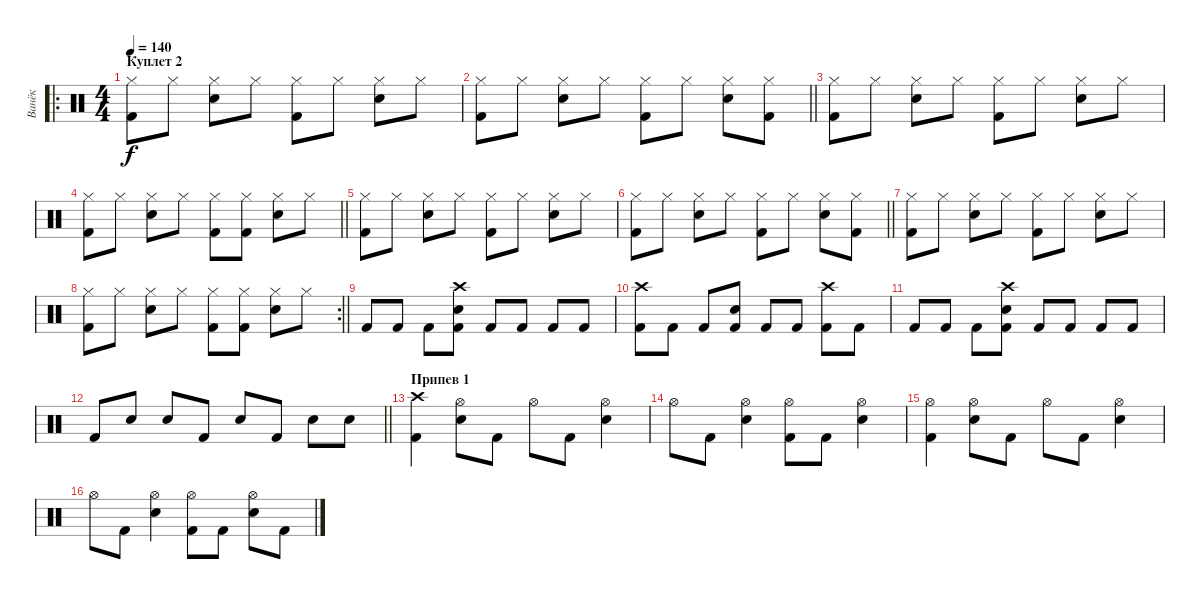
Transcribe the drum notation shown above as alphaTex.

\track ("Ванёк" "Ванёк") {instrument percussion}
\staff {score}
\articulation defaults
\ro
\ts (4 4)
\section ("" "Куплет 2")
\tempo 140
\clef neutral
\ks c
("Hi-Hat (closed)" "Kick (hit) 2").8{dy f} "Hi-Hat (closed)".8 ("Hi-Hat (closed)" "Electric Snare (hit)").8 "Hi-Hat (closed)".8 ("Hi-Hat (closed)" "Kick (hit) 2").8 "Hi-Hat (closed)".8 ("Hi-Hat (closed)" "Electric Snare (hit)").8 "Hi-Hat (closed)".8 |
\barLineRight lightlight
("Hi-Hat (closed)" "Kick (hit) 2").8 "Hi-Hat (closed)".8 ("Hi-Hat (closed)" "Electric Snare (hit)").8 "Hi-Hat (closed)".8 ("Hi-Hat (closed)" "Kick (hit) 2").8 "Hi-Hat (closed)".8 ("Hi-Hat (closed)" "Electric Snare (hit)").8 ("Hi-Hat (closed)" "Kick (hit) 2").8 |
("Hi-Hat (closed)" "Kick (hit) 2").8 "Hi-Hat (closed)".8 ("Hi-Hat (closed)" "Electric Snare (hit)").8 "Hi-Hat (closed)".8 ("Hi-Hat (closed)" "Kick (hit) 2").8 "Hi-Hat (closed)".8 ("Hi-Hat (closed)" "Electric Snare (hit)").8 "Hi-Hat (closed)".8 |
\barLineRight lightlight
("Hi-Hat (closed)" "Kick (hit) 2").8 "Hi-Hat (closed)".8 ("Hi-Hat (closed)" "Electric Snare (hit)").8 "Hi-Hat (closed)".8 ("Hi-Hat (closed)" "Kick (hit) 2").8 ("Hi-Hat (closed)" "Kick (hit) 2").8 ("Hi-Hat (closed)" "Electric Snare (hit)").8 "Hi-Hat (closed)".8 |
("Hi-Hat (closed)" "Kick (hit) 2").8 "Hi-Hat (closed)".8 ("Hi-Hat (closed)" "Electric Snare (hit)").8 "Hi-Hat (closed)".8 ("Hi-Hat (closed)" "Kick (hit) 2").8 "Hi-Hat (closed)".8 ("Hi-Hat (closed)" "Electric Snare (hit)").8 "Hi-Hat (closed)".8 |
\barLineRight lightlight
("Hi-Hat (closed)" "Kick (hit) 2").8 "Hi-Hat (closed)".8 ("Hi-Hat (closed)" "Electric Snare (hit)").8 "Hi-Hat (closed)".8 ("Hi-Hat (closed)" "Kick (hit) 2").8 "Hi-Hat (closed)".8 ("Hi-Hat (closed)" "Electric Snare (hit)").8 ("Hi-Hat (closed)" "Kick (hit) 2").8 |
("Hi-Hat (closed)" "Kick (hit) 2").8 "Hi-Hat (closed)".8 ("Hi-Hat (closed)" "Electric Snare (hit)").8 "Hi-Hat (closed)".8 ("Hi-Hat (closed)" "Kick (hit) 2").8 "Hi-Hat (closed)".8 ("Hi-Hat (closed)" "Electric Snare (hit)").8 "Hi-Hat (closed)".8 |
\rc 2
\barLineRight lightlight
("Hi-Hat (closed)" "Kick (hit) 2").8 "Hi-Hat (closed)".8 ("Hi-Hat (closed)" "Electric Snare (hit)").8 "Hi-Hat (closed)".8 ("Hi-Hat (closed)" "Kick (hit) 2").8 ("Hi-Hat (closed)" "Kick (hit) 2").8 ("Hi-Hat (closed)" "Electric Snare (hit)").8 "Hi-Hat (closed)".8 |
"Kick (hit) 2".8 "Kick (hit) 2".8 "Kick (hit) 2".8 ("Kick (hit) 2" "Crash high (hit)" "Electric Snare (hit)").8 "Kick (hit) 2".8 "Kick (hit) 2".8 "Kick (hit) 2".8 "Kick (hit) 2".8 |
("Kick (hit) 2" "Crash high (hit)").8 "Kick (hit) 2".8 "Kick (hit) 2".8 ("Kick (hit) 2" "Electric Snare (hit)").8 "Kick (hit) 2".8 "Kick (hit) 2".8 ("Kick (hit) 2" "Crash high (hit)").8 "Kick (hit) 2".8 |
"Kick (hit) 2".8 "Kick (hit) 2".8 "Kick (hit) 2".8 ("Kick (hit) 2" "Crash high (hit)" "Electric Snare (hit)").8 "Kick (hit) 2".8 "Kick (hit) 2".8 "Kick (hit) 2".8 "Kick (hit) 2".8 |
\barLineRight lightlight "Kick (hit) 2".8 "Electric Snare (hit)".8 "Electric Snare (hit)".8 "Kick (hit) 2".8 "Electric Snare (hit)".8 "Kick (hit) 2".8 "Electric Snare (hit)".8 "Electric Snare (hit)".8
|
\section ("" "Припев 1")
("Crash high (hit)" "Kick (hit) 2").4 ("Hi-Hat (open)" "Electric Snare (hit)").8 "Kick (hit) 2".8 "Hi-Hat (open)".8 "Kick (hit) 2".8 ("Hi-Hat (open)" "Electric Snare (hit)").4 |
"Hi-Hat (open)".8 "Kick (hit) 2".8 ("Hi-Hat (open)" "Electric Snare (hit)").4 ("Hi-Hat (open)" "Kick (hit) 2").8 "Kick (hit) 2".8 ("Hi-Hat (open)" "Electric Snare (hit)").4 |
("Hi-Hat (open)" "Kick (hit) 2").4 ("Hi-Hat (open)" "Electric Snare (hit)").8 "Kick (hit) 2".8 "Hi-Hat (open)".8 "Kick (hit) 2".8 ("Hi-Hat (open)" "Electric Snare (hit)").4 |
"Hi-Hat (open)".8 "Kick (hit) 2".8 ("Hi-Hat (open)" "Electric Snare (hit)").4 ("Hi-Hat (open)" "Kick (hit) 2").8 "Kick (hit) 2".8 ("Hi-Hat (open)" "Electric Snare (hit)").8 "Kick (hit) 2".8
